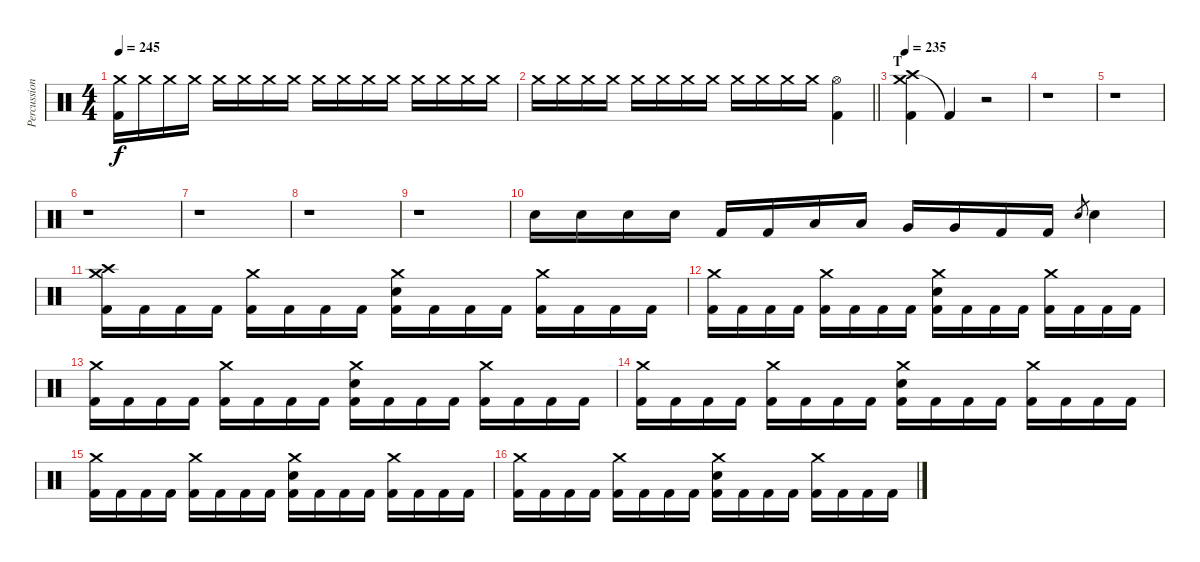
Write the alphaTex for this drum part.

\track ("Percussion" "Percussion") {instrument percussion}
\staff {score}
\articulation defaults
\ts (4 4)
\tempo 245
\clef neutral
\ks c
("Crash medium (hit)" "Kick (hit) 2").16{dy f volume 4} "Crash medium (hit)".16{volume 14} "Crash medium (hit)".16 "Crash medium (hit)".16 "Crash medium (hit)".16 "Crash medium (hit)".16 "Crash medium (hit)".16 "Crash medium (hit)".16 "Crash medium (hit)".16 "Crash medium (hit)".16 "Crash medium (hit)".16 "Crash medium (hit)".16 "Crash medium (hit)".16 "Crash medium (hit)".16 "Crash medium (hit)".16 "Crash medium (hit)".16 |
\barLineRight lightlight "Crash medium (hit)".16 "Crash medium (hit)".16 "Crash medium (hit)".16 "Crash medium (hit)".16 "Crash medium (hit)".16 "Crash medium (hit)".16 "Crash medium (hit)".16 "Crash medium (hit)".16 "Crash medium (hit)".16 "Crash medium (hit)".16 "Crash medium (hit)".16 "Crash medium (hit)".16
("Hi-Hat (open)" "Kick (hit) 2").4 |
\section ("" "T")
\tempo 235
("Crash medium (hit)" "Crash high (hit)" "Kick (hit) 2").4 "Kick (hit) 2"{t}.4{volume 0} r.2 |
r.1 |
r.1 |
r.1 |
r.1 |
r.1 |
r.1 |
"Electric Snare (hit)".16{volume 14} "Electric Snare (hit)".16 "Electric Snare (hit)".16 "Electric Snare (hit)".16 "Kick (hit) 2".16 "Kick (hit) 2".16 "Low Tom (hit)".16 "Low Tom (hit)".16 "Very Low Tom (hit)".16 "Very Low Tom (hit)".16 "Kick (hit) 2".16 "Kick (hit) 2".16 "Electric Snare (hit)".8{gr} "Electric Snare (hit)".4 |
("Crash medium (hit)" "Crash high (hit)" "Kick (hit) 2").16 "Kick (hit) 2".16 "Kick (hit) 2".16 "Kick (hit) 2".16 ("Crash medium (hit)" "Kick (hit) 2").16 "Kick (hit) 2".16 "Kick (hit) 2".16 "Kick (hit) 2".16 ("Crash medium (hit)" "Electric Snare (hit)" "Kick (hit) 2").16 "Kick (hit) 2".16 "Kick (hit) 2".16 "Kick (hit) 2".16 ("Crash medium (hit)" "Kick (hit) 2").16 "Kick (hit) 2".16 "Kick (hit) 2".16 "Kick (hit) 2".16 |
("Crash medium (hit)" "Kick (hit) 2").16 "Kick (hit) 2".16 "Kick (hit) 2".16 "Kick (hit) 2".16 ("Crash medium (hit)" "Kick (hit) 2").16 "Kick (hit) 2".16 "Kick (hit) 2".16 "Kick (hit) 2".16 ("Crash medium (hit)" "Electric Snare (hit)" "Kick (hit) 2").16 "Kick (hit) 2".16 "Kick (hit) 2".16 "Kick (hit) 2".16 ("Crash medium (hit)" "Kick (hit) 2").16 "Kick (hit) 2".16 "Kick (hit) 2".16 "Kick (hit) 2".16 |
("Crash medium (hit)" "Kick (hit) 2").16 "Kick (hit) 2".16 "Kick (hit) 2".16 "Kick (hit) 2".16 ("Crash medium (hit)" "Kick (hit) 2").16 "Kick (hit) 2".16 "Kick (hit) 2".16 "Kick (hit) 2".16 ("Crash medium (hit)" "Electric Snare (hit)" "Kick (hit) 2").16 "Kick (hit) 2".16 "Kick (hit) 2".16 "Kick (hit) 2".16 ("Crash medium (hit)" "Kick (hit) 2").16 "Kick (hit) 2".16 "Kick (hit) 2".16 "Kick (hit) 2".16 |
("Crash medium (hit)" "Kick (hit) 2").16 "Kick (hit) 2".16 "Kick (hit) 2".16 "Kick (hit) 2".16 ("Crash medium (hit)" "Kick (hit) 2").16 "Kick (hit) 2".16 "Kick (hit) 2".16 "Kick (hit) 2".16 ("Crash medium (hit)" "Electric Snare (hit)" "Kick (hit) 2").16 "Kick (hit) 2".16 "Kick (hit) 2".16 "Kick (hit) 2".16 ("Crash medium (hit)" "Kick (hit) 2").16 "Kick (hit) 2".16 "Kick (hit) 2".16 "Kick (hit) 2".16 |
("Crash medium (hit)" "Kick (hit) 2").16 "Kick (hit) 2".16 "Kick (hit) 2".16 "Kick (hit) 2".16 ("Crash medium (hit)" "Kick (hit) 2").16 "Kick (hit) 2".16 "Kick (hit) 2".16 "Kick (hit) 2".16 ("Crash medium (hit)" "Electric Snare (hit)" "Kick (hit) 2").16 "Kick (hit) 2".16 "Kick (hit) 2".16 "Kick (hit) 2".16 ("Crash medium (hit)" "Kick (hit) 2").16 "Kick (hit) 2".16 "Kick (hit) 2".16 "Kick (hit) 2".16 |
("Crash medium (hit)" "Kick (hit) 2").16 "Kick (hit) 2".16 "Kick (hit) 2".16 "Kick (hit) 2".16 ("Crash medium (hit)" "Kick (hit) 2").16 "Kick (hit) 2".16 "Kick (hit) 2".16 "Kick (hit) 2".16 ("Crash medium (hit)" "Electric Snare (hit)" "Kick (hit) 2").16 "Kick (hit) 2".16 "Kick (hit) 2".16 "Kick (hit) 2".16 ("Crash medium (hit)" "Kick (hit) 2").16 "Kick (hit) 2".16 "Kick (hit) 2".16 "Kick (hit) 2".16
